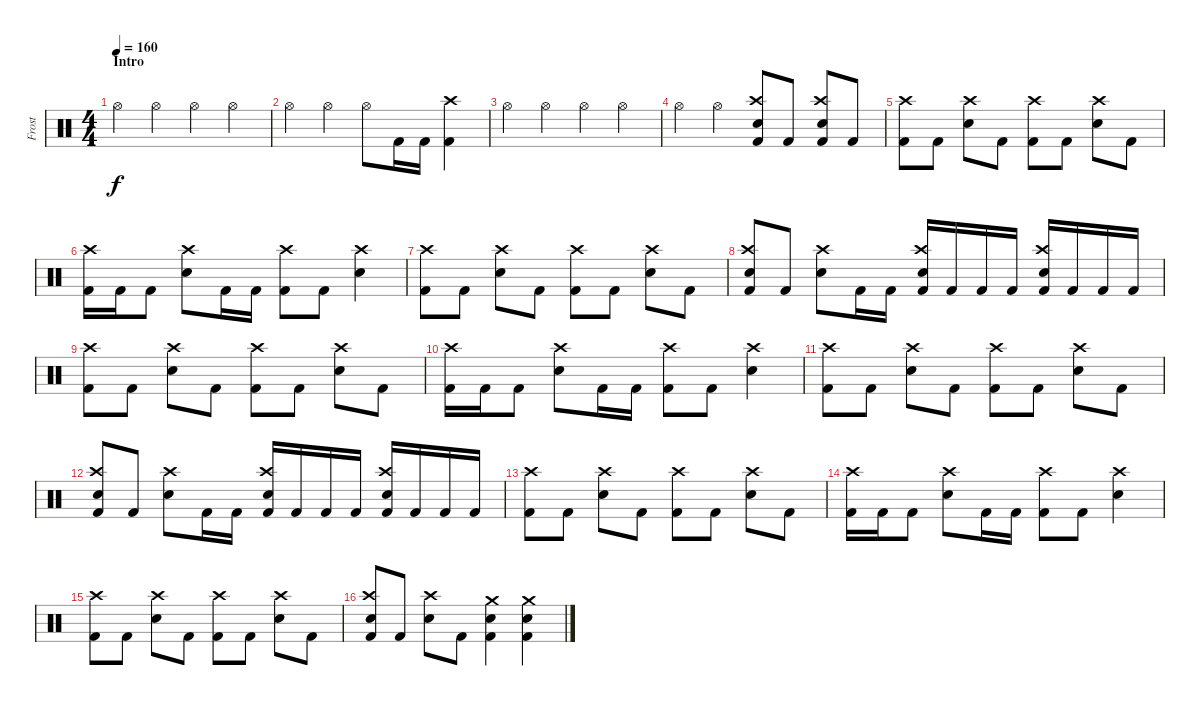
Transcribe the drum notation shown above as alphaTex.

\track ("Frost" "Frost") {instrument percussion}
\staff {score}
\articulation defaults
\ts (4 4)
\section ("" "Intro")
\tempo 160
\clef neutral
\ks c "Hi-Hat (open)".4{dy f} "Hi-Hat (open)".4 "Hi-Hat (open)".4 "Hi-Hat (open)".4
|
"Hi-Hat (open)".4 "Hi-Hat (open)".4 "Hi-Hat (open)".8 "Kick (hit) 2".16 "Kick (hit) 2".16 ("Crash high (hit)" "Kick (hit) 2").4 |
"Hi-Hat (open)".4 "Hi-Hat (open)".4 "Hi-Hat (open)".4 "Hi-Hat (open)".4 |
"Hi-Hat (open)".4 "Hi-Hat (open)".4 ("Crash high (hit)" "Snare (hit) 2" "Kick (hit) 2").8 "Kick (hit) 2".8 ("Crash high (hit)" "Snare (hit) 2" "Kick (hit) 2").8 "Kick (hit) 2".8 |
("Crash high (hit)" "Kick (hit) 2").8 "Kick (hit) 2".8 ("Crash high (hit)" "Snare (hit) 2").8 "Kick (hit) 2".8 ("Crash high (hit)" "Kick (hit) 2").8 "Kick (hit) 2".8 ("Crash high (hit)" "Snare (hit) 2").8 "Kick (hit) 2".8 |
("Crash high (hit)" "Kick (hit) 2").16 "Kick (hit) 2".16 "Kick (hit) 2".8 ("Crash high (hit)" "Snare (hit) 2").8 "Kick (hit) 2".16 "Kick (hit) 2".16 ("Crash high (hit)" "Kick (hit) 2").8 "Kick (hit) 2".8 ("Crash high (hit)" "Snare (hit) 2").4 |
("Crash high (hit)" "Kick (hit) 2").8 "Kick (hit) 2".8 ("Crash high (hit)" "Snare (hit) 2").8 "Kick (hit) 2".8 ("Crash high (hit)" "Kick (hit) 2").8 "Kick (hit) 2".8 ("Crash high (hit)" "Snare (hit) 2").8 "Kick (hit) 2".8 |
("Crash high (hit)" "Snare (hit) 2" "Kick (hit) 2").8 "Kick (hit) 2".8 ("Crash high (hit)" "Snare (hit) 2").8 "Kick (hit) 2".16 "Kick (hit) 2".16 ("Crash high (hit)" "Snare (hit) 2" "Kick (hit) 2").16 "Kick (hit) 2".16 "Kick (hit) 2".16 "Kick (hit) 2".16 ("Crash high (hit)" "Snare (hit) 2" "Kick (hit) 2").16 "Kick (hit) 2".16 "Kick (hit) 2".16 "Kick (hit) 2".16 |
("Crash high (hit)" "Kick (hit) 2").8 "Kick (hit) 2".8 ("Crash high (hit)" "Snare (hit) 2").8 "Kick (hit) 2".8 ("Crash high (hit)" "Kick (hit) 2").8 "Kick (hit) 2".8 ("Crash high (hit)" "Snare (hit) 2").8 "Kick (hit) 2".8 |
("Crash high (hit)" "Kick (hit) 2").16 "Kick (hit) 2".16 "Kick (hit) 2".8 ("Crash high (hit)" "Snare (hit) 2").8 "Kick (hit) 2".16 "Kick (hit) 2".16 ("Crash high (hit)" "Kick (hit) 2").8 "Kick (hit) 2".8 ("Crash high (hit)" "Snare (hit) 2").4 |
("Crash high (hit)" "Kick (hit) 2").8 "Kick (hit) 2".8 ("Crash high (hit)" "Snare (hit) 2").8 "Kick (hit) 2".8 ("Crash high (hit)" "Kick (hit) 2").8 "Kick (hit) 2".8 ("Crash high (hit)" "Snare (hit) 2").8 "Kick (hit) 2".8 |
("Crash high (hit)" "Snare (hit) 2" "Kick (hit) 2").8 "Kick (hit) 2".8 ("Crash high (hit)" "Snare (hit) 2").8 "Kick (hit) 2".16 "Kick (hit) 2".16 ("Crash high (hit)" "Snare (hit) 2" "Kick (hit) 2").16 "Kick (hit) 2".16 "Kick (hit) 2".16 "Kick (hit) 2".16 ("Crash high (hit)" "Snare (hit) 2" "Kick (hit) 2").16 "Kick (hit) 2".16 "Kick (hit) 2".16 "Kick (hit) 2".16 |
("Crash high (hit)" "Kick (hit) 2").8 "Kick (hit) 2".8 ("Crash high (hit)" "Snare (hit) 2").8 "Kick (hit) 2".8 ("Crash high (hit)" "Kick (hit) 2").8 "Kick (hit) 2".8 ("Crash high (hit)" "Snare (hit) 2").8 "Kick (hit) 2".8 |
("Crash high (hit)" "Kick (hit) 2").16 "Kick (hit) 2".16 "Kick (hit) 2".8 ("Crash high (hit)" "Snare (hit) 2").8 "Kick (hit) 2".16 "Kick (hit) 2".16 ("Crash high (hit)" "Kick (hit) 2").8 "Kick (hit) 2".8 ("Crash high (hit)" "Snare (hit) 2").4 |
("Crash high (hit)" "Kick (hit) 2").8 "Kick (hit) 2".8 ("Crash high (hit)" "Snare (hit) 2").8 "Kick (hit) 2".8 ("Crash high (hit)" "Kick (hit) 2").8 "Kick (hit) 2".8 ("Crash high (hit)" "Snare (hit) 2").8 "Kick (hit) 2".8 |
("Crash high (hit)" "Snare (hit) 2" "Kick (hit) 2").8 "Kick (hit) 2".8 ("Crash high (hit)" "Snare (hit) 2").8 "Kick (hit) 2".8 ("Crash medium (hit)" "Snare (hit) 2" "Kick (hit) 2").4 ("Crash medium (hit)" "Snare (hit) 2" "Kick (hit) 2").4
